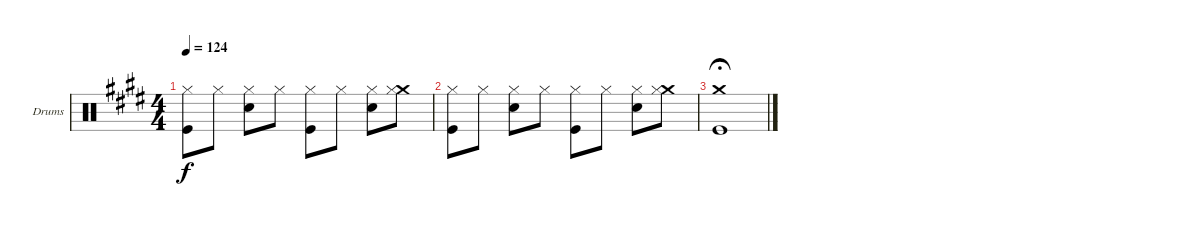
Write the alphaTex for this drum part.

\defaultSystemsLayout 4
\bracketExtendMode groupsimilarinstruments
\firstSystemTrackNameOrientation horizontal
\otherSystemsTrackNameOrientation horizontal
\track ("Drumkit" "Drums") {instrument percussion}
\staff {score}
\articulation defaults
\ts (4 4)
\tempo 124
\clef neutral
\scale
1.06557
\ks e
("Hi-Hat (closed)" "Kick (hit)").8{dy f} "Hi-Hat (closed)".8 ("Hi-Hat (closed)" "Snare (hit) 2").8 "Hi-Hat (closed)".8 ("Hi-Hat (closed)" "Kick (hit)").8 "Hi-Hat (closed)".8 ("Hi-Hat (closed)" "Snare (hit) 2").8 ("Crash medium (hit)" "Hi-Hat (closed)").8 |
\scale
0.934426 ("Hi-Hat (closed)" "Kick (hit)").8 "Hi-Hat (closed)".8 ("Hi-Hat (closed)" "Snare (hit) 2").8 "Hi-Hat (closed)".8 ("Hi-Hat (closed)" "Kick (hit)").8 "Hi-Hat (closed)".8 ("Hi-Hat (closed)" "Snare (hit) 2").8 ("Crash medium (hit)" "Hi-Hat (closed)").8 |
("Crash medium (hit)" "Kick (hit)").1{fermata (medium 0.6)}
